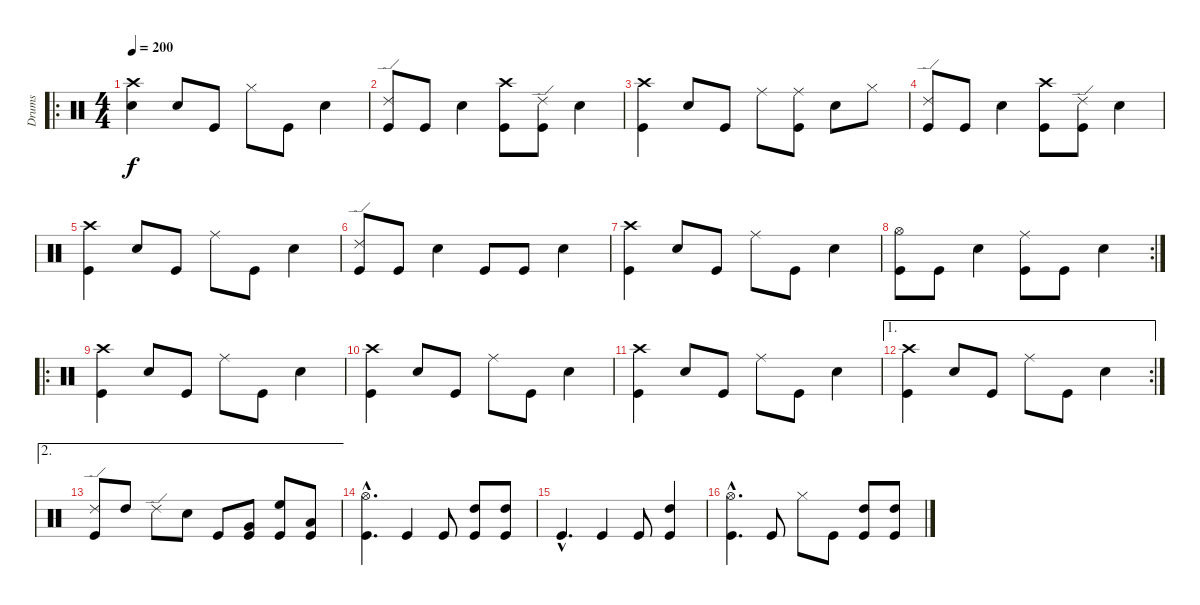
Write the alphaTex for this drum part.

\track ("Drums" "Drums") {instrument percussion}
\staff {score}
\articulation defaults
\ro
\ts (4 4)
\tempo 200
\clef neutral
\ks c
("Crash high (hit)" "Snare (hit) 2").4{dy f} "Snare (hit) 2".8 "Kick (hit)".8 "Hi-Hat (closed)".8 "Kick (hit)".8 "Snare (hit) 2".4 |
("Ride (edge) 2" "Kick (hit)").8 "Kick (hit)".8 "Snare (hit) 2".4 ("Crash high (hit)" "Kick (hit)").8 ("Ride (edge) 2" "Kick (hit)").8 "Snare (hit) 2".4 |
("Crash high (hit)" "Kick (hit)").4 "Snare (hit) 2".8 "Kick (hit)".8 "Ride (middle)".8 ("Ride (middle)" "Kick (hit)").8 "Snare (hit) 2".8 "Hi-Hat (closed)".8 |
("Ride (edge) 2" "Kick (hit)").8 "Kick (hit)".8 "Snare (hit) 2".4 ("Crash high (hit)" "Kick (hit)").8 ("Ride (edge) 2" "Kick (hit)").8 "Snare (hit) 2".4 |
("Crash high (hit)" "Kick (hit)").4 "Snare (hit) 2".8 "Kick (hit)".8 "Ride (middle)".8 "Kick (hit)".8 "Snare (hit) 2".4 |
("Ride (edge) 2" "Kick (hit)").8 "Kick (hit)".8 "Snare (hit) 2".4 "Kick (hit)".8 "Kick (hit)".8 "Snare (hit) 2".4 |
("Crash high (hit)" "Kick (hit)").4 "Snare (hit) 2".8 "Kick (hit)".8 "Ride (middle)".8 "Kick (hit)".8 "Snare (hit) 2".4 |
\rc 2
("Hi-Hat (open)" "Kick (hit)").8 "Kick (hit)".8 "Snare (hit) 2".4 ("Ride (middle)" "Kick (hit)").8 "Kick (hit)".8 "Snare (hit) 2".4 |
\ro
("Crash high (hit)" "Kick (hit)").4 "Snare (hit) 2".8 "Kick (hit)".8 "Ride (middle)".8 "Kick (hit)".8 "Snare (hit) 2".4 |
("Crash high (hit)" "Kick (hit)").4 "Snare (hit) 2".8 "Kick (hit)".8 "Ride (middle)".8 "Kick (hit)".8 "Snare (hit) 2".4 |
("Crash high (hit)" "Kick (hit)").4 "Snare (hit) 2".8 "Kick (hit)".8 "Ride (middle)".8 "Kick (hit)".8 "Snare (hit) 2".4 |
\ae 1
\rc 2
("Crash high (hit)" "Kick (hit)").4 "Snare (hit) 2".8 "Kick (hit)".8 "Ride (middle)".8 "Kick (hit)".8 "Snare (hit) 2".4 |
\ae 2
("Ride (edge) 2" "Kick (hit)").8 "High Tom (hit)".8 "Ride (edge) 2".8 "Snare (hit) 2".8 "Kick (hit)".8 ("Very Low Tom (hit)" "Kick (hit)").8 ("High Floor Tom (hit)" "Kick (hit)").8 ("Low Tom (hit)" "Kick (hit)").8 |
("Hi-Hat (open)"{hac} "Kick (hit)"{hac}).4{d} "Kick (hit)".4 "Kick (hit)".8 ("High Tom (hit)" "Kick (hit)").8 ("High Tom (hit)" "Kick (hit)").8 |
"Kick (hit)"{hac}.4{d} "Kick (hit)".4 "Kick (hit)".8 ("High Tom (hit)" "Kick (hit)").4 |
("Hi-Hat (open)"{hac} "Kick (hit)"{hac}).4{d} "Kick (hit)".8 "Hi-Hat (closed)".8 "Kick (hit)".8 ("High Tom (hit)" "Kick (hit)").8 ("High Tom (hit)" "Kick (hit)").8
